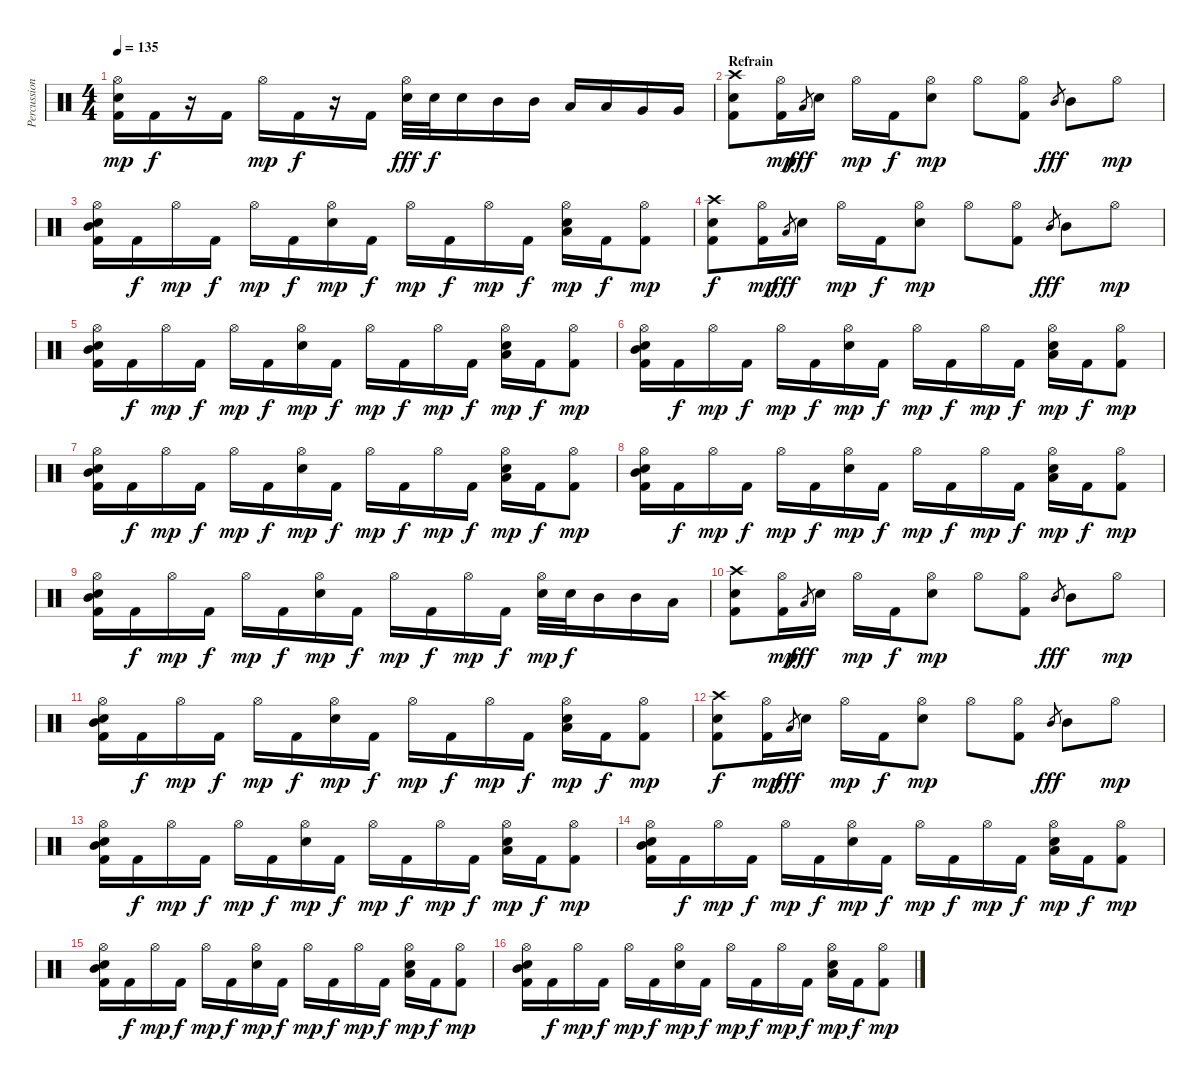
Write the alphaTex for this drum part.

\track ("Percussions" "Percussion") {instrument percussion}
\staff {score}
\articulation defaults
\ts (4 4)
\tempo 135
\clef neutral
\ks c
("Hi-Hat (open)" "Electric Snare (hit)" "Kick (hit) 2").16{dy mp} "Kick (hit) 2".16{dy f} r.16 "Kick (hit) 2".16 "Hi-Hat (open)".16{dy mp} "Kick (hit) 2".16{dy f} r.16 "Kick (hit) 2".16 ("Hi-Hat (open)" "Electric Snare (hit)").32{dy fff} "Electric Snare (hit)".32{dy f} "Electric Snare (hit)".16 "Mid Tom (hit)".16 "Mid Tom (hit)".16 "Low Tom (hit)".16 "Low Tom (hit)".16 "Very Low Tom (hit)".16 "Very Low Tom (hit)".16 |
\section ("" "Refrain")
("Crash high (hit)" "Electric Snare (hit)" "Kick (hit) 2").8 ("Hi-Hat (open)" "Kick (hit) 2").16{dy mp} "Low Tom (hit)".8{gr dy fff} "Electric Snare (hit)".16 "Hi-Hat (open)".16{dy mp} "Kick (hit) 2".16{dy f} ("Hi-Hat (open)" "Electric Snare (hit)").8{dy mp} "Hi-Hat (open)".8 ("Hi-Hat (open)" "Kick (hit) 2").8 "Mid Tom (hit)".8{gr dy fff} "Mid Tom (hit)".8 "Hi-Hat (open)".8{dy mp} |
("Hi-Hat (open)" "Electric Snare (hit)" "Mid Tom (hit)" "Kick (hit) 2").16 "Kick (hit) 2".16{dy f} "Hi-Hat (open)".16{dy mp} "Kick (hit) 2".16{dy f} "Hi-Hat (open)".16{dy mp} "Kick (hit) 2".16{dy f} ("Hi-Hat (open)" "Electric Snare (hit)").16{dy mp} "Kick (hit) 2".16{dy f} "Hi-Hat (open)".16{dy mp} "Kick (hit) 2".16{dy f} "Hi-Hat (open)".16{dy mp} "Kick (hit) 2".16{dy f} ("Hi-Hat (open)" "Electric Snare (hit)" "Low Tom (hit)").16{dy mp} "Kick (hit) 2".16{dy f} ("Hi-Hat (open)" "Kick (hit) 2").8{dy mp} |
("Crash high (hit)" "Electric Snare (hit)" "Kick (hit) 2").8{dy f} ("Hi-Hat (open)" "Kick (hit) 2").16{dy mp} "Low Tom (hit)".8{gr dy fff} "Electric Snare (hit)".16 "Hi-Hat (open)".16{dy mp} "Kick (hit) 2".16{dy f} ("Hi-Hat (open)" "Electric Snare (hit)").8{dy mp} "Hi-Hat (open)".8 ("Hi-Hat (open)" "Kick (hit) 2").8 "Mid Tom (hit)".8{gr dy fff} "Mid Tom (hit)".8 "Hi-Hat (open)".8{dy mp} |
("Hi-Hat (open)" "Electric Snare (hit)" "Mid Tom (hit)" "Kick (hit) 2").16 "Kick (hit) 2".16{dy f} "Hi-Hat (open)".16{dy mp} "Kick (hit) 2".16{dy f} "Hi-Hat (open)".16{dy mp} "Kick (hit) 2".16{dy f} ("Hi-Hat (open)" "Electric Snare (hit)").16{dy mp} "Kick (hit) 2".16{dy f} "Hi-Hat (open)".16{dy mp} "Kick (hit) 2".16{dy f} "Hi-Hat (open)".16{dy mp} "Kick (hit) 2".16{dy f} ("Hi-Hat (open)" "Electric Snare (hit)" "Low Tom (hit)").16{dy mp} "Kick (hit) 2".16{dy f} ("Hi-Hat (open)" "Kick (hit) 2").8{dy mp} |
("Hi-Hat (open)" "Electric Snare (hit)" "Mid Tom (hit)" "Kick (hit) 2").16 "Kick (hit) 2".16{dy f} "Hi-Hat (open)".16{dy mp} "Kick (hit) 2".16{dy f} "Hi-Hat (open)".16{dy mp} "Kick (hit) 2".16{dy f} ("Hi-Hat (open)" "Electric Snare (hit)").16{dy mp} "Kick (hit) 2".16{dy f} "Hi-Hat (open)".16{dy mp} "Kick (hit) 2".16{dy f} "Hi-Hat (open)".16{dy mp} "Kick (hit) 2".16{dy f} ("Hi-Hat (open)" "Electric Snare (hit)" "Low Tom (hit)").16{dy mp} "Kick (hit) 2".16{dy f} ("Hi-Hat (open)" "Kick (hit) 2").8{dy mp} |
("Hi-Hat (open)" "Electric Snare (hit)" "Mid Tom (hit)" "Kick (hit) 2").16 "Kick (hit) 2".16{dy f} "Hi-Hat (open)".16{dy mp} "Kick (hit) 2".16{dy f} "Hi-Hat (open)".16{dy mp} "Kick (hit) 2".16{dy f} ("Hi-Hat (open)" "Electric Snare (hit)").16{dy mp} "Kick (hit) 2".16{dy f} "Hi-Hat (open)".16{dy mp} "Kick (hit) 2".16{dy f} "Hi-Hat (open)".16{dy mp} "Kick (hit) 2".16{dy f} ("Hi-Hat (open)" "Electric Snare (hit)" "Low Tom (hit)").16{dy mp} "Kick (hit) 2".16{dy f} ("Hi-Hat (open)" "Kick (hit) 2").8{dy mp} |
("Hi-Hat (open)" "Electric Snare (hit)" "Mid Tom (hit)" "Kick (hit) 2").16 "Kick (hit) 2".16{dy f} "Hi-Hat (open)".16{dy mp} "Kick (hit) 2".16{dy f} "Hi-Hat (open)".16{dy mp} "Kick (hit) 2".16{dy f} ("Hi-Hat (open)" "Electric Snare (hit)").16{dy mp} "Kick (hit) 2".16{dy f} "Hi-Hat (open)".16{dy mp} "Kick (hit) 2".16{dy f} "Hi-Hat (open)".16{dy mp} "Kick (hit) 2".16{dy f} ("Hi-Hat (open)" "Electric Snare (hit)" "Low Tom (hit)").16{dy mp} "Kick (hit) 2".16{dy f} ("Hi-Hat (open)" "Kick (hit) 2").8{dy mp} |
("Hi-Hat (open)" "Electric Snare (hit)" "Mid Tom (hit)" "Kick (hit) 2").16 "Kick (hit) 2".16{dy f} "Hi-Hat (open)".16{dy mp} "Kick (hit) 2".16{dy f} "Hi-Hat (open)".16{dy mp} "Kick (hit) 2".16{dy f} ("Hi-Hat (open)" "Electric Snare (hit)").16{dy mp} "Kick (hit) 2".16{dy f} "Hi-Hat (open)".16{dy mp} "Kick (hit) 2".16{dy f} "Hi-Hat (open)".16{dy mp} "Kick (hit) 2".16{dy f} ("Hi-Hat (open)" "Electric Snare (hit)").32{dy mp} "Electric Snare (hit)".32{dy f} "Mid Tom (hit)".16 "Mid Tom (hit)".16 "Low Tom (hit)".16 |
("Crash high (hit)" "Electric Snare (hit)" "Kick (hit) 2").8 ("Hi-Hat (open)" "Kick (hit) 2").16{dy mp} "Low Tom (hit)".8{gr dy fff} "Electric Snare (hit)".16 "Hi-Hat (open)".16{dy mp} "Kick (hit) 2".16{dy f} ("Hi-Hat (open)" "Electric Snare (hit)").8{dy mp} "Hi-Hat (open)".8 ("Hi-Hat (open)" "Kick (hit) 2").8 "Mid Tom (hit)".8{gr dy fff} "Mid Tom (hit)".8 "Hi-Hat (open)".8{dy mp} |
("Hi-Hat (open)" "Electric Snare (hit)" "Mid Tom (hit)" "Kick (hit) 2").16 "Kick (hit) 2".16{dy f} "Hi-Hat (open)".16{dy mp} "Kick (hit) 2".16{dy f} "Hi-Hat (open)".16{dy mp} "Kick (hit) 2".16{dy f} ("Hi-Hat (open)" "Electric Snare (hit)").16{dy mp} "Kick (hit) 2".16{dy f} "Hi-Hat (open)".16{dy mp} "Kick (hit) 2".16{dy f} "Hi-Hat (open)".16{dy mp} "Kick (hit) 2".16{dy f} ("Hi-Hat (open)" "Electric Snare (hit)" "Low Tom (hit)").16{dy mp} "Kick (hit) 2".16{dy f} ("Hi-Hat (open)" "Kick (hit) 2").8{dy mp} |
("Crash high (hit)" "Electric Snare (hit)" "Kick (hit) 2").8{dy f} ("Hi-Hat (open)" "Kick (hit) 2").16{dy mp} "Low Tom (hit)".8{gr dy fff} "Electric Snare (hit)".16 "Hi-Hat (open)".16{dy mp} "Kick (hit) 2".16{dy f} ("Hi-Hat (open)" "Electric Snare (hit)").8{dy mp} "Hi-Hat (open)".8 ("Hi-Hat (open)" "Kick (hit) 2").8 "Mid Tom (hit)".8{gr dy fff} "Mid Tom (hit)".8 "Hi-Hat (open)".8{dy mp} |
("Hi-Hat (open)" "Electric Snare (hit)" "Mid Tom (hit)" "Kick (hit) 2").16 "Kick (hit) 2".16{dy f} "Hi-Hat (open)".16{dy mp} "Kick (hit) 2".16{dy f} "Hi-Hat (open)".16{dy mp} "Kick (hit) 2".16{dy f} ("Hi-Hat (open)" "Electric Snare (hit)").16{dy mp} "Kick (hit) 2".16{dy f} "Hi-Hat (open)".16{dy mp} "Kick (hit) 2".16{dy f} "Hi-Hat (open)".16{dy mp} "Kick (hit) 2".16{dy f} ("Hi-Hat (open)" "Electric Snare (hit)" "Low Tom (hit)").16{dy mp} "Kick (hit) 2".16{dy f} ("Hi-Hat (open)" "Kick (hit) 2").8{dy mp} |
("Hi-Hat (open)" "Electric Snare (hit)" "Mid Tom (hit)" "Kick (hit) 2").16 "Kick (hit) 2".16{dy f} "Hi-Hat (open)".16{dy mp} "Kick (hit) 2".16{dy f} "Hi-Hat (open)".16{dy mp} "Kick (hit) 2".16{dy f} ("Hi-Hat (open)" "Electric Snare (hit)").16{dy mp} "Kick (hit) 2".16{dy f} "Hi-Hat (open)".16{dy mp} "Kick (hit) 2".16{dy f} "Hi-Hat (open)".16{dy mp} "Kick (hit) 2".16{dy f} ("Hi-Hat (open)" "Electric Snare (hit)" "Low Tom (hit)").16{dy mp} "Kick (hit) 2".16{dy f} ("Hi-Hat (open)" "Kick (hit) 2").8{dy mp} |
("Hi-Hat (open)" "Electric Snare (hit)" "Mid Tom (hit)" "Kick (hit) 2").16 "Kick (hit) 2".16{dy f} "Hi-Hat (open)".16{dy mp} "Kick (hit) 2".16{dy f} "Hi-Hat (open)".16{dy mp} "Kick (hit) 2".16{dy f} ("Hi-Hat (open)" "Electric Snare (hit)").16{dy mp} "Kick (hit) 2".16{dy f} "Hi-Hat (open)".16{dy mp} "Kick (hit) 2".16{dy f} "Hi-Hat (open)".16{dy mp} "Kick (hit) 2".16{dy f} ("Hi-Hat (open)" "Electric Snare (hit)" "Low Tom (hit)").16{dy mp} "Kick (hit) 2".16{dy f} ("Hi-Hat (open)" "Kick (hit) 2").8{dy mp} |
("Hi-Hat (open)" "Electric Snare (hit)" "Mid Tom (hit)" "Kick (hit) 2").16 "Kick (hit) 2".16{dy f} "Hi-Hat (open)".16{dy mp} "Kick (hit) 2".16{dy f} "Hi-Hat (open)".16{dy mp} "Kick (hit) 2".16{dy f} ("Hi-Hat (open)" "Electric Snare (hit)").16{dy mp} "Kick (hit) 2".16{dy f} "Hi-Hat (open)".16{dy mp} "Kick (hit) 2".16{dy f} "Hi-Hat (open)".16{dy mp} "Kick (hit) 2".16{dy f} ("Hi-Hat (open)" "Electric Snare (hit)" "Low Tom (hit)").16{dy mp} "Kick (hit) 2".16{dy f} ("Hi-Hat (open)" "Kick (hit) 2").8{dy mp}
